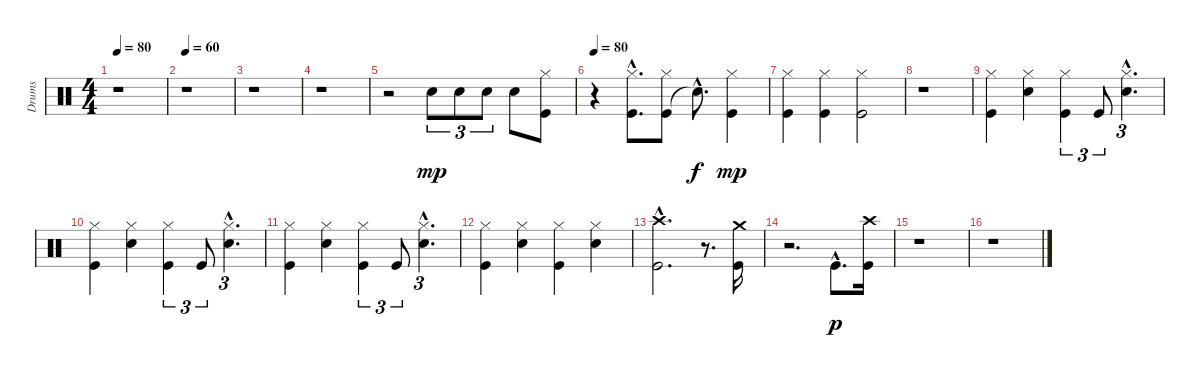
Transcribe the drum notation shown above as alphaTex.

\track ("Drums" "Drums") {instrument percussion}
\staff {score}
\articulation defaults
\ts (4 4)
\tempo 80
\clef neutral
\ks c
r.1{dy mp} |
\tempo 60
r.1 |
r.1 |
r.1 |
r.2 "Electric Snare (hit)".8{tu (3 2)} "Electric Snare (hit)".8{tu (3 2)} "Electric Snare (hit)".8{tu (3 2)} "Electric Snare (hit)".8 ("Kick (hit)" "Hi-Hat (closed)").8 |
\tempo 80
r.4 ("Kick (hit)" "Hi-Hat (closed)"{hac}).8{d} ("Kick (hit)" "Hi-Hat (closed)").8 "Snare (hit)"{hac t}.8{d dy f} ("Kick (hit)" "Hi-Hat (closed)").4{dy mp} |
("Kick (hit)" "Hi-Hat (closed)").4 ("Kick (hit)" "Hi-Hat (closed)").4 ("Kick (hit)" "Hi-Hat (closed)").2 |
r.1 |
("Hi-Hat (closed)" "Kick (hit)").4 ("Hi-Hat (closed)" "Electric Snare (hit)").4 ("Hi-Hat (closed)" "Kick (hit)").4{tu (3 2)} "Kick (hit)".8{tu (3 2)} ("Hi-Hat (closed)"{hac} "Electric Snare (hit)"{hac}).4{d tu (3 2)} |
("Hi-Hat (closed)" "Kick (hit)").4 ("Hi-Hat (closed)" "Electric Snare (hit)").4 ("Hi-Hat (closed)" "Kick (hit)").4{tu (3 2)} "Kick (hit)".8{tu (3 2)} ("Hi-Hat (closed)"{hac} "Electric Snare (hit)"{hac}).4{d tu (3 2)} |
("Hi-Hat (closed)" "Kick (hit)").4 ("Hi-Hat (closed)" "Electric Snare (hit)").4 ("Hi-Hat (closed)" "Kick (hit)").4{tu (3 2)} "Kick (hit)".8{tu (3 2)} ("Hi-Hat (closed)"{hac} "Electric Snare (hit)"{hac}).4{d tu (3 2)} |
("Hi-Hat (closed)" "Kick (hit)").4 ("Electric Snare (hit)" "Hi-Hat (closed)").4 ("Hi-Hat (closed)" "Kick (hit)").4 ("Hi-Hat (closed)" "Electric Snare (hit)").4 |
("Kick (hit)"{hac} "Crash high (hit)"{hac}).2{d} r.8{d} ("Crash medium (hit)" "Kick (hit)").16 |
r.2{d} "Kick (hit)"{hac}.8{d dy p} ("Crash high (hit)" "Kick (hit)").16 |
r.1 |
r.1
